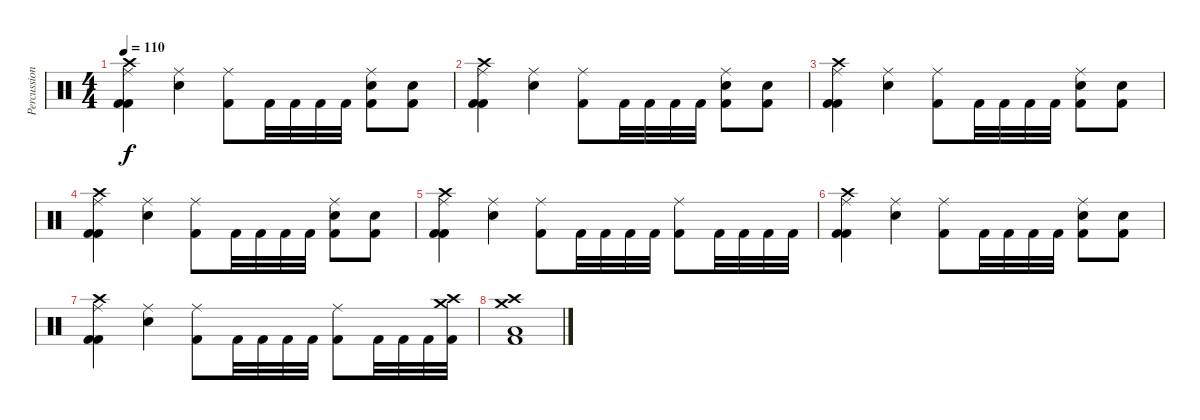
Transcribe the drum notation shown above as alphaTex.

\track ("Percussion" "Percussion") {instrument percussion}
\staff {score}
\articulation defaults
\ts (4 4)
\tempo 110
\clef neutral
\ks c
("Crash high (hit)" "Ride (middle)" "Kick (hit) 2" "Kick (hit) 2").4{dy f} ("Ride (middle)" "Electric Snare (hit)").4 ("Ride (middle)" "Kick (hit) 2").8 "Kick (hit) 2".32 "Kick (hit) 2".32 "Kick (hit) 2".32 "Kick (hit) 2".32 ("Ride (middle)" "Electric Snare (hit)" "Kick (hit) 2").8 ("Electric Snare (hit)" "Kick (hit) 2").8 |
("Crash high (hit)" "Ride (middle)" "Kick (hit) 2" "Kick (hit) 2").4 ("Ride (middle)" "Electric Snare (hit)").4 ("Ride (middle)" "Kick (hit) 2").8 "Kick (hit) 2".32 "Kick (hit) 2".32 "Kick (hit) 2".32 "Kick (hit) 2".32 ("Ride (middle)" "Electric Snare (hit)" "Kick (hit) 2").8 ("Electric Snare (hit)" "Kick (hit) 2").8 |
("Crash high (hit)" "Ride (middle)" "Kick (hit) 2" "Kick (hit) 2").4 ("Ride (middle)" "Electric Snare (hit)").4 ("Ride (middle)" "Kick (hit) 2").8 "Kick (hit) 2".32 "Kick (hit) 2".32 "Kick (hit) 2".32 "Kick (hit) 2".32 ("Ride (middle)" "Electric Snare (hit)" "Kick (hit) 2").8 ("Electric Snare (hit)" "Kick (hit) 2").8 |
("Crash high (hit)" "Ride (middle)" "Kick (hit) 2" "Kick (hit) 2").4 ("Ride (middle)" "Electric Snare (hit)").4 ("Ride (middle)" "Kick (hit) 2").8 "Kick (hit) 2".32 "Kick (hit) 2".32 "Kick (hit) 2".32 "Kick (hit) 2".32 ("Ride (middle)" "Electric Snare (hit)" "Kick (hit) 2").8 ("Electric Snare (hit)" "Kick (hit) 2").8 |
("Crash high (hit)" "Ride (middle)" "Kick (hit) 2" "Kick (hit) 2").4 ("Ride (middle)" "Electric Snare (hit)").4 ("Ride (middle)" "Kick (hit) 2").8 "Kick (hit) 2".32 "Kick (hit) 2".32 "Kick (hit) 2".32 "Kick (hit) 2".32 ("Ride (middle)" "Kick (hit) 2").8 "Kick (hit) 2".32 "Kick (hit) 2".32 "Kick (hit) 2".32 "Kick (hit) 2".32 |
("Crash high (hit)" "Ride (middle)" "Kick (hit) 2" "Kick (hit) 2").4 ("Ride (middle)" "Electric Snare (hit)").4 ("Ride (middle)" "Kick (hit) 2").8 "Kick (hit) 2".32 "Kick (hit) 2".32 "Kick (hit) 2".32 "Kick (hit) 2".32 ("Ride (middle)" "Electric Snare (hit)" "Kick (hit) 2").8 ("Electric Snare (hit)" "Kick (hit) 2").8 |
("Crash high (hit)" "Ride (middle)" "Kick (hit) 2" "Kick (hit) 2").4 ("Ride (middle)" "Electric Snare (hit)").4 ("Ride (middle)" "Kick (hit) 2").8 "Kick (hit) 2".32 "Kick (hit) 2".32 "Kick (hit) 2".32 "Kick (hit) 2".32 ("Ride (middle)" "Kick (hit) 2").8 "Kick (hit) 2".32 "Kick (hit) 2".32 "Kick (hit) 2".32 ("Crash medium (hit)" "Crash high (hit)" "Kick (hit) 2").32 |
("Crash medium (hit)" "Crash high (hit)" "Low Tom (hit)" "Kick (hit) 2").1
